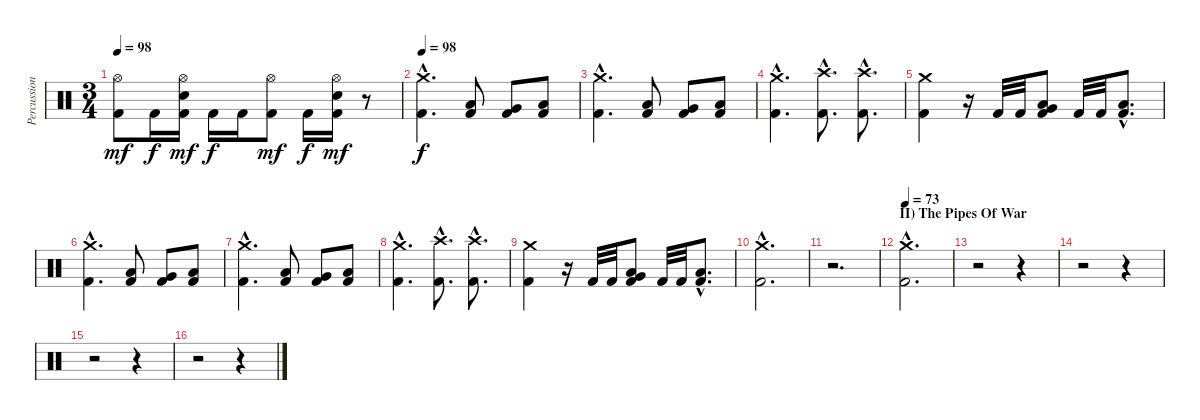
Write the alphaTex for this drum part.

\track ("Percussion" "Percussion") {instrument percussion}
\staff {score}
\articulation defaults
\ts (3 4)
\tempo 98
\clef neutral
\ks c
("Hi-Hat (open)" "Kick (hit) 2").8{dy mf} "Kick (hit) 2".16{dy f} ("Hi-Hat (open)" "Electric Snare (hit)" "Kick (hit) 2").16{dy mf} "Kick (hit) 2".16{dy f} "Kick (hit) 2".16 ("Hi-Hat (open)" "Kick (hit) 2").8{dy mf} "Kick (hit) 2".16{dy f} ("Hi-Hat (open)" "Electric Snare (hit)" "Kick (hit) 2").16{dy mf} r.8 |
\tempo 98
("Crash medium (hit)"{hac} "Kick (hit) 2"{hac}).4{d dy f} ("Low Tom (hit)" "Kick (hit) 2").8 ("Very Low Tom (hit)" "Kick (hit) 2").8 ("Low Floor Tom (hit)" "Kick (hit) 2").8 |
("Crash medium (hit)"{hac} "Kick (hit) 2"{hac}).4{d} ("Low Tom (hit)" "Kick (hit) 2").8 ("Very Low Tom (hit)" "Kick (hit) 2").8 ("Low Floor Tom (hit)" "Kick (hit) 2").8 |
("Crash medium (hit)"{hac} "Kick (hit) 2"{hac}).4{d} ("Crash high (hit)"{hac} "Kick (hit) 2"{hac}).8{d} ("Crash high (hit)"{hac} "Kick (hit) 2"{hac}).8{d} |
("Crash medium (hit)" "Kick (hit) 2").4 r.16 "Kick (hit) 2".32 "Kick (hit) 2".32 ("Very Low Tom (hit)" "Low Floor Tom (hit)" "Kick (hit) 2").8 "Kick (hit) 2".32 "Kick (hit) 2".32 ("Low Floor Tom (hit)"{hac} "Kick (hit) 2"{hac}).8{d} |
("Crash medium (hit)"{hac} "Kick (hit) 2"{hac}).4{d} ("Low Tom (hit)" "Kick (hit) 2").8 ("Very Low Tom (hit)" "Kick (hit) 2").8 ("Low Floor Tom (hit)" "Kick (hit) 2").8 |
("Crash medium (hit)"{hac} "Kick (hit) 2"{hac}).4{d} ("Low Tom (hit)" "Kick (hit) 2").8 ("Very Low Tom (hit)" "Kick (hit) 2").8 ("Low Floor Tom (hit)" "Kick (hit) 2").8 |
("Crash medium (hit)"{hac} "Kick (hit) 2"{hac}).4{d} ("Crash high (hit)"{hac} "Kick (hit) 2"{hac}).8{d} ("Crash high (hit)"{hac} "Kick (hit) 2"{hac}).8{d} |
("Crash medium (hit)" "Kick (hit) 2").4 r.16 "Kick (hit) 2".32 "Kick (hit) 2".32 ("Very Low Tom (hit)" "Low Floor Tom (hit)" "Kick (hit) 2").8 "Kick (hit) 2".32 "Kick (hit) 2".32 ("Low Floor Tom (hit)"{hac} "Kick (hit) 2"{hac}).8{d} |
("Crash medium (hit)"{hac} "Kick (hit) 2"{hac}).2{d} |
r.2{d} |
\section ("" "II) The Pipes Of War")
\tempo 73
("Crash medium (hit)"{hac} "Kick (hit) 2"{hac}).2{d} |
r.2 r.4 |
r.2 r.4 |
r.2 r.4 |
r.2 r.4
